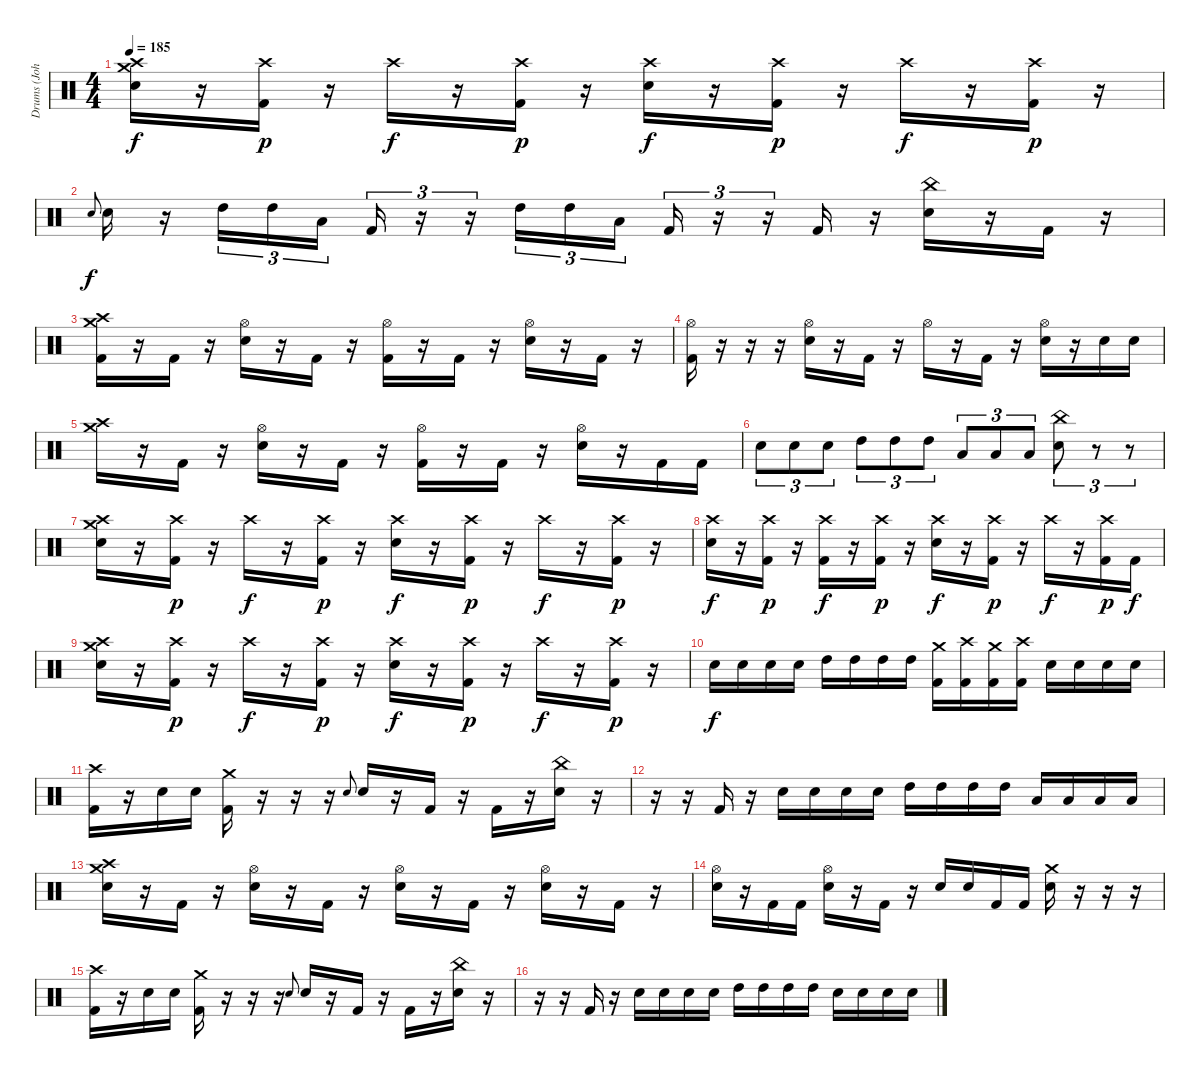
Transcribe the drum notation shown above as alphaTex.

\track ("Drums (Johno)" "Drums (Joh") {instrument percussion}
\staff {score}
\articulation defaults
\ts (4 4)
\tempo 185
\clef neutral
\ks c
("Crash medium (hit)" "Crash high (hit)" "Electric Snare (hit)").16{dy f} r.16 ("Crash high (hit)" "Kick (hit) 2").16{dy p} r.16 "Crash high (hit)".16{dy f} r.16 ("Crash high (hit)" "Kick (hit) 2").16{dy p} r.16 ("Crash high (hit)" "Electric Snare (hit)").16{dy f} r.16 ("Crash high (hit)" "Kick (hit) 2").16{dy p} r.16 "Crash high (hit)".16{dy f} r.16 ("Crash high (hit)" "Kick (hit) 2").16{dy p} r.16 |
"Electric Snare (hit)".8{gr onbeat dy f} "Electric Snare (hit)".16 r.16 "High Tom (hit)".16{tu (3 2)} "High Tom (hit)".16{tu (3 2)} "Low Floor Tom (hit)".16{tu (3 2)} "Kick (hit) 2".16{tu (3 2)} r.16{tu (3 2)} r.16{tu (3 2)} "High Tom (hit)".16{tu (3 2)} "High Tom (hit)".16{tu (3 2)} "Low Floor Tom (hit)".16{tu (3 2)} "Kick (hit) 2".16{tu (3 2)} r.16{tu (3 2)} r.16{tu (3 2)} "Kick (hit) 2".16 r.16 ("China (hit)" "Electric Snare (hit)").16 r.16 "Kick (hit) 2".16 r.16 |
("Crash medium (hit)" "Crash high (hit)" "Kick (hit) 2").16 r.16 "Kick (hit) 2".16 r.16 ("Hi-Hat (open)" "Electric Snare (hit)").16 r.16 "Kick (hit) 2".16 r.16 ("Hi-Hat (open)" "Kick (hit) 2").16 r.16 "Kick (hit) 2".16 r.16 ("Hi-Hat (open)" "Electric Snare (hit)").16 r.16 "Kick (hit) 2".16 r.16 |
("Hi-Hat (open)" "Kick (hit) 2").16 r.16 r.16 r.16 ("Hi-Hat (open)" "Electric Snare (hit)").16 r.16 "Kick (hit) 2".16 r.16 "Hi-Hat (open)".16 r.16 "Kick (hit) 2".16 r.16 ("Hi-Hat (open)" "Electric Snare (hit)").16 r.16 "Electric Snare (hit)".16 "Electric Snare (hit)".16 |
("Crash medium (hit)" "Crash high (hit)").16 r.16 "Kick (hit) 2".16 r.16 ("Hi-Hat (open)" "Electric Snare (hit)").16 r.16 "Kick (hit) 2".16 r.16 ("Hi-Hat (open)" "Kick (hit) 2").16 r.16 "Kick (hit) 2".16 r.16 ("Hi-Hat (open)" "Electric Snare (hit)").16 r.16 "Kick (hit) 2".16 "Kick (hit) 2".16 |
"Electric Snare (hit)".8{tu (3 2)} "Electric Snare (hit)".8{tu (3 2)} "Electric Snare (hit)".8{tu (3 2)} "High Tom (hit)".8{tu (3 2)} "High Tom (hit)".8{tu (3 2)} "High Tom (hit)".8{tu (3 2)} "Low Floor Tom (hit)".8{tu (3 2)} "Low Floor Tom (hit)".8{tu (3 2)} "Low Floor Tom (hit)".8{tu (3 2)} ("China (hit)" "Electric Snare (hit)").8{tu (3 2)} r.8{tu (3 2)} r.8{tu (3 2)} |
("Crash medium (hit)" "Crash high (hit)" "Electric Snare (hit)").16 r.16 ("Crash high (hit)" "Kick (hit) 2").16{dy p} r.16 "Crash high (hit)".16{dy f} r.16 ("Crash high (hit)" "Kick (hit) 2").16{dy p} r.16 ("Crash high (hit)" "Electric Snare (hit)").16{dy f} r.16 ("Crash high (hit)" "Kick (hit) 2").16{dy p} r.16 "Crash high (hit)".16{dy f} r.16 ("Crash high (hit)" "Kick (hit) 2").16{dy p} r.16 |
("Crash high (hit)" "Electric Snare (hit)").16{dy f} r.16 ("Crash high (hit)" "Kick (hit) 2").16{dy p} r.16 ("Crash high (hit)" "Kick (hit) 2").16{dy f} r.16 ("Crash high (hit)" "Kick (hit) 2").16{dy p} r.16 ("Crash high (hit)" "Electric Snare (hit)").16{dy f} r.16 ("Crash high (hit)" "Kick (hit) 2").16{dy p} r.16 "Crash high (hit)".16{dy f} r.16 ("Crash high (hit)" "Kick (hit) 2").16{dy p} "Kick (hit) 2".16{dy f} |
("Crash medium (hit)" "Crash high (hit)" "Electric Snare (hit)").16 r.16 ("Crash high (hit)" "Kick (hit) 2").16{dy p} r.16 "Crash high (hit)".16{dy f} r.16 ("Crash high (hit)" "Kick (hit) 2").16{dy p} r.16 ("Crash high (hit)" "Electric Snare (hit)").16{dy f} r.16 ("Crash high (hit)" "Kick (hit) 2").16{dy p} r.16 "Crash high (hit)".16{dy f} r.16 ("Crash high (hit)" "Kick (hit) 2").16{dy p} r.16 |
"Electric Snare (hit)".16{dy f} "Electric Snare (hit)".16 "Electric Snare (hit)".16 "Electric Snare (hit)".16 "High Tom (hit)".16 "High Tom (hit)".16 "High Tom (hit)".16 "High Tom (hit)".16 ("Crash medium (hit)" "Kick (hit) 2").16 ("Crash high (hit)" "Kick (hit) 2").16 ("Crash medium (hit)" "Kick (hit) 2").16 ("Crash high (hit)" "Kick (hit) 2").16 "Electric Snare (hit)".16 "Electric Snare (hit)".16 "Electric Snare (hit)".16 "Electric Snare (hit)".16 |
("Crash high (hit)" "Kick (hit) 2").16 r.16 "Electric Snare (hit)".16 "Electric Snare (hit)".16 ("Crash medium (hit)" "Kick (hit) 2").16 r.16 r.16 r.16 "Electric Snare (hit)".8{gr onbeat} "Electric Snare (hit)".16 r.16 "Kick (hit) 2".16 r.16 "Kick (hit) 2".16 r.16 ("China (hit)" "Electric Snare (hit)").16 r.16 |
r.16 r.16 "Kick (hit) 2".16 r.16 "Electric Snare (hit)".16 "Electric Snare (hit)".16 "Electric Snare (hit)".16 "Electric Snare (hit)".16 "High Tom (hit)".16 "High Tom (hit)".16 "High Tom (hit)".16 "High Tom (hit)".16 "Low Floor Tom (hit)".16 "Low Floor Tom (hit)".16 "Low Floor Tom (hit)".16 "Low Floor Tom (hit)".16 |
("Crash medium (hit)" "Crash high (hit)" "Electric Snare (hit)").16 r.16 "Kick (hit) 2".16 r.16 ("Hi-Hat (open)" "Electric Snare (hit)").16 r.16 "Kick (hit) 2".16 r.16 ("Hi-Hat (open)" "Electric Snare (hit)").16 r.16 "Kick (hit) 2".16 r.16 ("Hi-Hat (open)" "Electric Snare (hit)").16 r.16 "Kick (hit) 2".16 r.16 |
("Hi-Hat (open)" "Electric Snare (hit)").16 r.16 "Kick (hit) 2".16 "Kick (hit) 2".16 ("Hi-Hat (open)" "Electric Snare (hit)").16 r.16 "Kick (hit) 2".16 r.16 "Electric Snare (hit)".16 "Electric Snare (hit)".16 "Kick (hit) 2".16 "Kick (hit) 2".16 ("Crash medium (hit)" "Electric Snare (hit)").16 r.16 r.16 r.16 |
("Crash high (hit)" "Kick (hit) 2").16 r.16 "Electric Snare (hit)".16 "Electric Snare (hit)".16 ("Crash medium (hit)" "Kick (hit) 2").16 r.16 r.16 r.16 "Electric Snare (hit)".8{gr onbeat} "Electric Snare (hit)".16 r.16 "Kick (hit) 2".16 r.16 "Kick (hit) 2".16 r.16 ("China (hit)" "Electric Snare (hit)").16 r.16 |
r.16 r.16 "Kick (hit) 2".16 r.16 "Electric Snare (hit)".16 "Electric Snare (hit)".16 "Electric Snare (hit)".16 "Electric Snare (hit)".16 "High Tom (hit)".16 "High Tom (hit)".16 "High Tom (hit)".16 "High Tom (hit)".16 "Electric Snare (hit)".16 "Electric Snare (hit)".16 "Electric Snare (hit)".16 "Electric Snare (hit)".16
